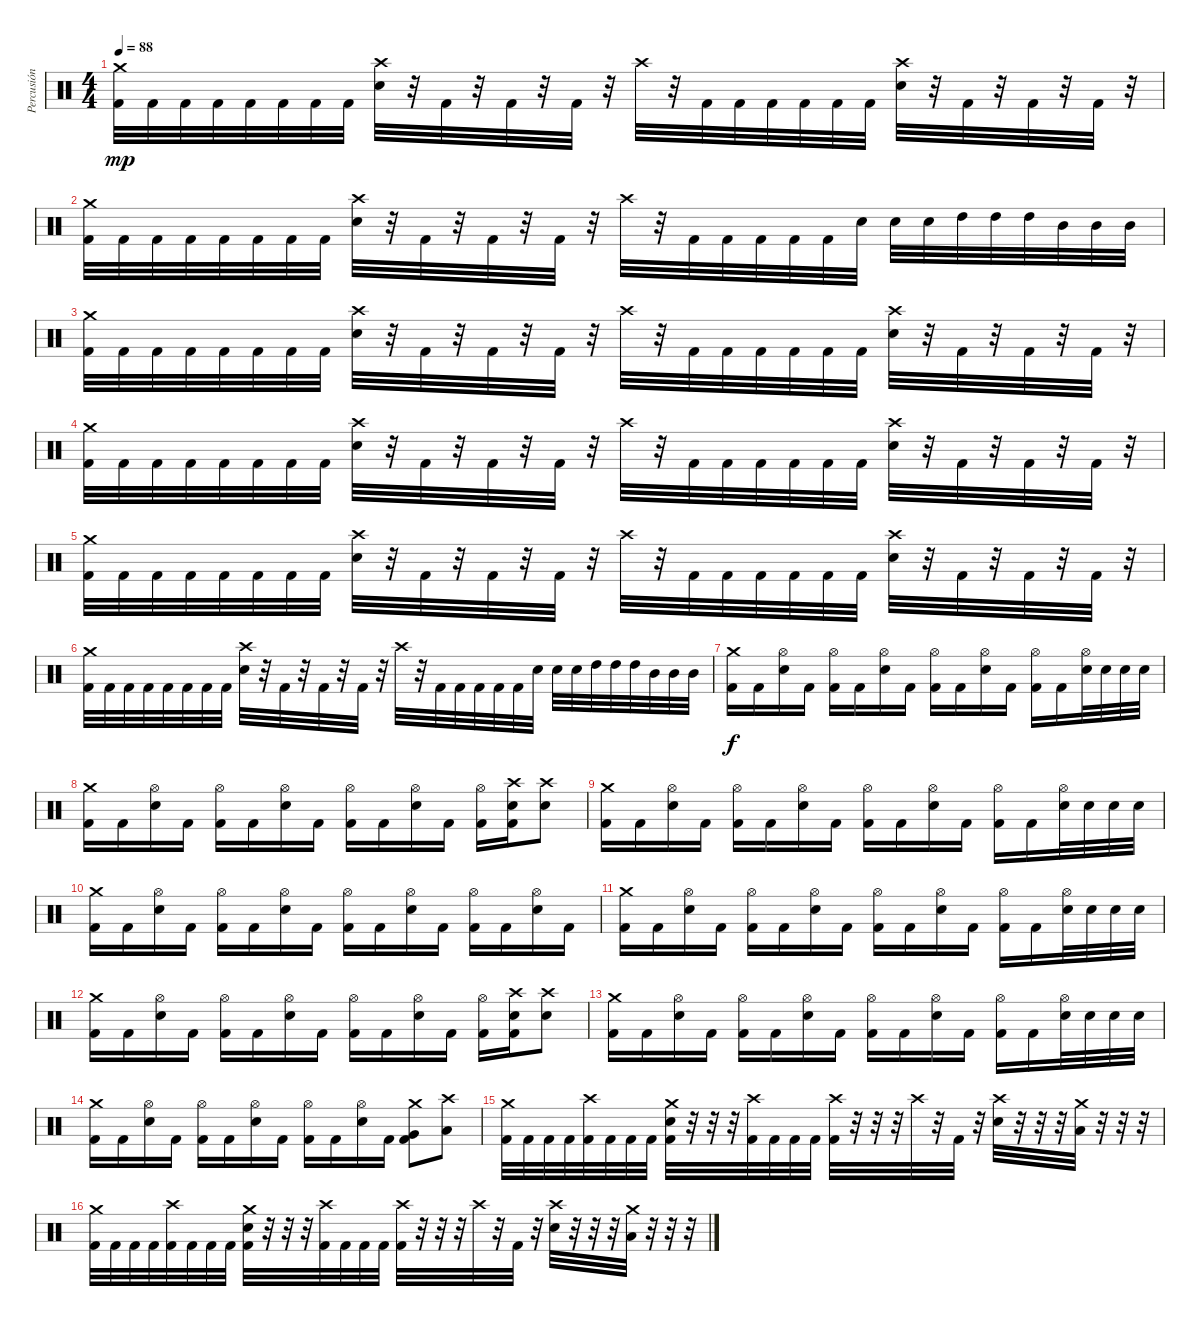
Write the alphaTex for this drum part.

\track ("Percusión" "Percusión") {instrument percussion}
\staff {score}
\articulation defaults
\ts (4 4)
\tempo 88
\clef neutral
\ks c
("Crash medium (hit)" "Kick (hit) 2").32{dy mp} "Kick (hit) 2".32 "Kick (hit) 2".32 "Kick (hit) 2".32 "Kick (hit) 2".32 "Kick (hit) 2".32 "Kick (hit) 2".32 "Kick (hit) 2".32 ("Crash high (hit)" "Electric Snare (hit)").32 r.32 "Kick (hit) 2".32 r.32 "Kick (hit) 2".32 r.32 "Kick (hit) 2".32 r.32 "Crash high (hit)".32 r.32 "Kick (hit) 2".32 "Kick (hit) 2".32 "Kick (hit) 2".32 "Kick (hit) 2".32 "Kick (hit) 2".32 "Kick (hit) 2".32 ("Crash high (hit)" "Electric Snare (hit)").32 r.32 "Kick (hit) 2".32 r.32 "Kick (hit) 2".32 r.32 "Kick (hit) 2".32 r.32 |
("Crash medium (hit)" "Kick (hit) 2").32 "Kick (hit) 2".32 "Kick (hit) 2".32 "Kick (hit) 2".32 "Kick (hit) 2".32 "Kick (hit) 2".32 "Kick (hit) 2".32 "Kick (hit) 2".32 ("Crash high (hit)" "Electric Snare (hit)").32 r.32 "Kick (hit) 2".32 r.32 "Kick (hit) 2".32 r.32 "Kick (hit) 2".32 r.32 "Crash high (hit)".32 r.32 "Kick (hit) 2".32 "Kick (hit) 2".32 "Kick (hit) 2".32 "Kick (hit) 2".32 "Kick (hit) 2".32 "Electric Snare (hit)".32 "Electric Snare (hit)".32 "Electric Snare (hit)".32 "High Tom (hit)".32 "High Tom (hit)".32 "High Tom (hit)".32 "Mid Tom (hit)".32 "Mid Tom (hit)".32 "Mid Tom (hit)".32 |
("Crash medium (hit)" "Kick (hit) 2").32 "Kick (hit) 2".32 "Kick (hit) 2".32 "Kick (hit) 2".32 "Kick (hit) 2".32 "Kick (hit) 2".32 "Kick (hit) 2".32 "Kick (hit) 2".32 ("Crash high (hit)" "Electric Snare (hit)").32 r.32 "Kick (hit) 2".32 r.32 "Kick (hit) 2".32 r.32 "Kick (hit) 2".32 r.32 "Crash high (hit)".32 r.32 "Kick (hit) 2".32 "Kick (hit) 2".32 "Kick (hit) 2".32 "Kick (hit) 2".32 "Kick (hit) 2".32 "Kick (hit) 2".32 ("Crash high (hit)" "Electric Snare (hit)").32 r.32 "Kick (hit) 2".32 r.32 "Kick (hit) 2".32 r.32 "Kick (hit) 2".32 r.32 |
("Crash medium (hit)" "Kick (hit) 2").32 "Kick (hit) 2".32 "Kick (hit) 2".32 "Kick (hit) 2".32 "Kick (hit) 2".32 "Kick (hit) 2".32 "Kick (hit) 2".32 "Kick (hit) 2".32 ("Crash high (hit)" "Electric Snare (hit)").32 r.32 "Kick (hit) 2".32 r.32 "Kick (hit) 2".32 r.32 "Kick (hit) 2".32 r.32 "Crash high (hit)".32 r.32 "Kick (hit) 2".32 "Kick (hit) 2".32 "Kick (hit) 2".32 "Kick (hit) 2".32 "Kick (hit) 2".32 "Kick (hit) 2".32 ("Crash high (hit)" "Electric Snare (hit)").32 r.32 "Kick (hit) 2".32 r.32 "Kick (hit) 2".32 r.32 "Kick (hit) 2".32 r.32 |
("Crash medium (hit)" "Kick (hit) 2").32 "Kick (hit) 2".32 "Kick (hit) 2".32 "Kick (hit) 2".32 "Kick (hit) 2".32 "Kick (hit) 2".32 "Kick (hit) 2".32 "Kick (hit) 2".32 ("Crash high (hit)" "Electric Snare (hit)").32 r.32 "Kick (hit) 2".32 r.32 "Kick (hit) 2".32 r.32 "Kick (hit) 2".32 r.32 "Crash high (hit)".32 r.32 "Kick (hit) 2".32 "Kick (hit) 2".32 "Kick (hit) 2".32 "Kick (hit) 2".32 "Kick (hit) 2".32 "Kick (hit) 2".32 ("Crash high (hit)" "Electric Snare (hit)").32 r.32 "Kick (hit) 2".32 r.32 "Kick (hit) 2".32 r.32 "Kick (hit) 2".32 r.32 |
("Crash medium (hit)" "Kick (hit) 2").32 "Kick (hit) 2".32 "Kick (hit) 2".32 "Kick (hit) 2".32 "Kick (hit) 2".32 "Kick (hit) 2".32 "Kick (hit) 2".32 "Kick (hit) 2".32 ("Crash high (hit)" "Electric Snare (hit)").32 r.32 "Kick (hit) 2".32 r.32 "Kick (hit) 2".32 r.32 "Kick (hit) 2".32 r.32 "Crash high (hit)".32 r.32 "Kick (hit) 2".32 "Kick (hit) 2".32 "Kick (hit) 2".32 "Kick (hit) 2".32 "Kick (hit) 2".32 "Electric Snare (hit)".32 "Electric Snare (hit)".32 "Electric Snare (hit)".32 "High Tom (hit)".32 "High Tom (hit)".32 "High Tom (hit)".32 "Mid Tom (hit)".32 "Mid Tom (hit)".32 "Mid Tom (hit)".32 |
("Crash medium (hit)" "Kick (hit) 2").16{dy f} "Kick (hit) 2".16 ("Hi-Hat (open)" "Electric Snare (hit)").16 "Kick (hit) 2".16 ("Hi-Hat (open)" "Kick (hit) 2").16 "Kick (hit) 2".16 ("Hi-Hat (open)" "Electric Snare (hit)").16 "Kick (hit) 2".16 ("Hi-Hat (open)" "Kick (hit) 2").16 "Kick (hit) 2".16 ("Hi-Hat (open)" "Electric Snare (hit)").16 "Kick (hit) 2".16 ("Hi-Hat (open)" "Kick (hit) 2").16 "Kick (hit) 2".16 ("Hi-Hat (open)" "Electric Snare (hit)").32 "Electric Snare (hit)".32 "Electric Snare (hit)".32 "Electric Snare (hit)".32 |
("Crash medium (hit)" "Kick (hit) 2").16 "Kick (hit) 2".16 ("Hi-Hat (open)" "Electric Snare (hit)").16 "Kick (hit) 2".16 ("Hi-Hat (open)" "Kick (hit) 2").16 "Kick (hit) 2".16 ("Hi-Hat (open)" "Electric Snare (hit)").16 "Kick (hit) 2".16 ("Hi-Hat (open)" "Kick (hit) 2").16 "Kick (hit) 2".16 ("Hi-Hat (open)" "Electric Snare (hit)").16 "Kick (hit) 2".16 ("Hi-Hat (open)" "Kick (hit) 2").16 ("Crash high (hit)" "Electric Snare (hit)" "Kick (hit) 2").16 ("Crash high (hit)" "Electric Snare (hit)").8 |
("Crash medium (hit)" "Kick (hit) 2").16 "Kick (hit) 2".16 ("Hi-Hat (open)" "Electric Snare (hit)").16 "Kick (hit) 2".16 ("Hi-Hat (open)" "Kick (hit) 2").16 "Kick (hit) 2".16 ("Hi-Hat (open)" "Electric Snare (hit)").16 "Kick (hit) 2".16 ("Hi-Hat (open)" "Kick (hit) 2").16 "Kick (hit) 2".16 ("Hi-Hat (open)" "Electric Snare (hit)").16 "Kick (hit) 2".16 ("Hi-Hat (open)" "Kick (hit) 2").16 "Kick (hit) 2".16 ("Hi-Hat (open)" "Electric Snare (hit)").32 "Electric Snare (hit)".32 "Electric Snare (hit)".32 "Electric Snare (hit)".32 |
("Crash medium (hit)" "Kick (hit) 2").16 "Kick (hit) 2".16 ("Hi-Hat (open)" "Electric Snare (hit)").16 "Kick (hit) 2".16 ("Hi-Hat (open)" "Kick (hit) 2").16 "Kick (hit) 2".16 ("Hi-Hat (open)" "Electric Snare (hit)").16 "Kick (hit) 2".16 ("Hi-Hat (open)" "Kick (hit) 2").16 "Kick (hit) 2".16 ("Hi-Hat (open)" "Electric Snare (hit)").16 "Kick (hit) 2".16 ("Hi-Hat (open)" "Kick (hit) 2").16 "Kick (hit) 2".16 ("Hi-Hat (open)" "Electric Snare (hit)").16 "Kick (hit) 2".16 |
("Crash medium (hit)" "Kick (hit) 2").16 "Kick (hit) 2".16 ("Hi-Hat (open)" "Electric Snare (hit)").16 "Kick (hit) 2".16 ("Hi-Hat (open)" "Kick (hit) 2").16 "Kick (hit) 2".16 ("Hi-Hat (open)" "Electric Snare (hit)").16 "Kick (hit) 2".16 ("Hi-Hat (open)" "Kick (hit) 2").16 "Kick (hit) 2".16 ("Hi-Hat (open)" "Electric Snare (hit)").16 "Kick (hit) 2".16 ("Hi-Hat (open)" "Kick (hit) 2").16 "Kick (hit) 2".16 ("Hi-Hat (open)" "Electric Snare (hit)").32 "Electric Snare (hit)".32 "Electric Snare (hit)".32 "Electric Snare (hit)".32 |
("Crash medium (hit)" "Kick (hit) 2").16 "Kick (hit) 2".16 ("Hi-Hat (open)" "Electric Snare (hit)").16 "Kick (hit) 2".16 ("Hi-Hat (open)" "Kick (hit) 2").16 "Kick (hit) 2".16 ("Hi-Hat (open)" "Electric Snare (hit)").16 "Kick (hit) 2".16 ("Hi-Hat (open)" "Kick (hit) 2").16 "Kick (hit) 2".16 ("Hi-Hat (open)" "Electric Snare (hit)").16 "Kick (hit) 2".16 ("Hi-Hat (open)" "Kick (hit) 2").16 ("Crash high (hit)" "Electric Snare (hit)" "Kick (hit) 2").16 ("Crash high (hit)" "Electric Snare (hit)").8 |
("Crash medium (hit)" "Kick (hit) 2").16 "Kick (hit) 2".16 ("Hi-Hat (open)" "Electric Snare (hit)").16 "Kick (hit) 2".16 ("Hi-Hat (open)" "Kick (hit) 2").16 "Kick (hit) 2".16 ("Hi-Hat (open)" "Electric Snare (hit)").16 "Kick (hit) 2".16 ("Hi-Hat (open)" "Kick (hit) 2").16 "Kick (hit) 2".16 ("Hi-Hat (open)" "Electric Snare (hit)").16 "Kick (hit) 2".16 ("Hi-Hat (open)" "Kick (hit) 2").16 "Kick (hit) 2".16 ("Hi-Hat (open)" "Electric Snare (hit)").32 "Electric Snare (hit)".32 "Electric Snare (hit)".32 "Electric Snare (hit)".32 |
("Crash medium (hit)" "Kick (hit) 2").16 "Kick (hit) 2".16 ("Hi-Hat (open)" "Electric Snare (hit)").16 "Kick (hit) 2".16 ("Hi-Hat (open)" "Kick (hit) 2").16 "Kick (hit) 2".16 ("Hi-Hat (open)" "Electric Snare (hit)").16 "Kick (hit) 2".16 ("Hi-Hat (open)" "Kick (hit) 2").16 "Kick (hit) 2".16 ("Hi-Hat (open)" "Electric Snare (hit)").16 "Kick (hit) 2".16 ("Crash medium (hit)" "Very Low Tom (hit)" "Kick (hit) 2").8 ("Crash high (hit)" "Low Tom (hit)").8 |
("Crash medium (hit)" "Kick (hit) 2").32 "Kick (hit) 2".32 "Kick (hit) 2".32 "Kick (hit) 2".32 ("Crash high (hit)" "Kick (hit) 2").32 "Kick (hit) 2".32 "Kick (hit) 2".32 "Kick (hit) 2".32 ("Crash medium (hit)" "Electric Snare (hit)" "Kick (hit) 2").32 r.32 r.32 r.32 ("Crash high (hit)" "Kick (hit) 2").32 "Kick (hit) 2".32 "Kick (hit) 2".32 "Kick (hit) 2".32 ("Crash high (hit)" "Kick (hit) 2").32 r.32 r.32 r.32 "Crash high (hit)".32 r.32 "Kick (hit) 2".32 r.32 ("Crash high (hit)" "Electric Snare (hit)").32 r.32 r.32 r.32 ("Crash medium (hit)" "Low Tom (hit)").32 r.32 r.32 r.32 |
("Crash medium (hit)" "Kick (hit) 2").32 "Kick (hit) 2".32 "Kick (hit) 2".32 "Kick (hit) 2".32 ("Crash high (hit)" "Kick (hit) 2").32 "Kick (hit) 2".32 "Kick (hit) 2".32 "Kick (hit) 2".32 ("Crash medium (hit)" "Electric Snare (hit)" "Kick (hit) 2").32 r.32 r.32 r.32 ("Crash high (hit)" "Kick (hit) 2").32 "Kick (hit) 2".32 "Kick (hit) 2".32 "Kick (hit) 2".32 ("Crash high (hit)" "Kick (hit) 2").32 r.32 r.32 r.32 "Crash high (hit)".32 r.32 "Kick (hit) 2".32 r.32 ("Crash high (hit)" "Electric Snare (hit)").32 r.32 r.32 r.32 ("Crash medium (hit)" "Low Tom (hit)").32 r.32 r.32 r.32
